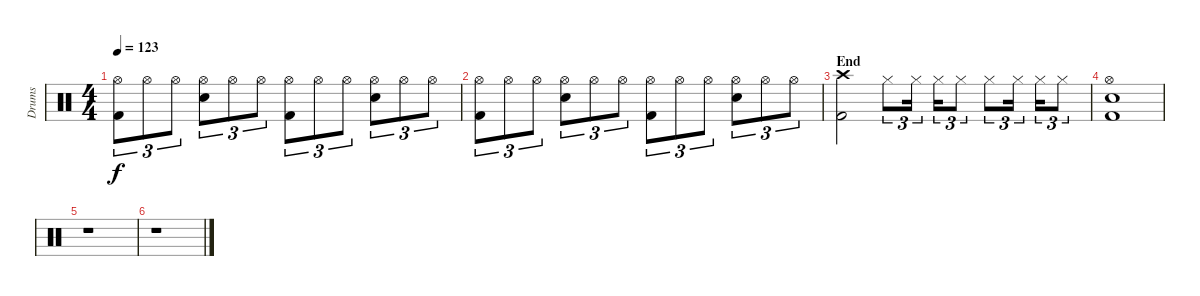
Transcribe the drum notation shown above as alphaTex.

\track ("Drums" "Drums") {instrument percussion}
\staff {score}
\articulation defaults
\ts (4 4)
\tempo 123
\clef neutral
\ks c
("Hi-Hat (open)" "Kick (hit) 2").8{tu (3 2) dy f} "Hi-Hat (open)".8{tu (3 2)} "Hi-Hat (open)".8{tu (3 2)} ("Hi-Hat (open)" "Snare (hit) 2").8{tu (3 2)} "Hi-Hat (open)".8{tu (3 2)} "Hi-Hat (open)".8{tu (3 2)} ("Hi-Hat (open)" "Kick (hit) 2").8{tu (3 2)} "Hi-Hat (open)".8{tu (3 2)} "Hi-Hat (open)".8{tu (3 2)} ("Hi-Hat (open)" "Snare (hit) 2").8{tu (3 2)} "Hi-Hat (open)".8{tu (3 2)} "Hi-Hat (open)".8{tu (3 2)} |
("Hi-Hat (open)" "Kick (hit) 2").8{tu (3 2)} "Hi-Hat (open)".8{tu (3 2)} "Hi-Hat (open)".8{tu (3 2)} ("Hi-Hat (open)" "Snare (hit) 2").8{tu (3 2)} "Hi-Hat (open)".8{tu (3 2)} "Hi-Hat (open)".8{tu (3 2)} ("Hi-Hat (open)" "Kick (hit) 2").8{tu (3 2)} "Hi-Hat (open)".8{tu (3 2)} "Hi-Hat (open)".8{tu (3 2)} ("Hi-Hat (open)" "Snare (hit) 2").8{tu (3 2)} "Hi-Hat (open)".8{tu (3 2)} "Hi-Hat (open)".8{tu (3 2)} |
\section ("" "End")
("Crash high (hit)" "Kick (hit) 2").2 "Hi-Hat (closed)".8{tu (3 2)} "Hi-Hat (closed)".16{tu (3 2)} "Hi-Hat (closed)".16{tu (3 2)} "Hi-Hat (closed)".8{tu (3 2)} "Hi-Hat (closed)".8{tu (3 2)} "Hi-Hat (closed)".16{tu (3 2)} "Hi-Hat (closed)".16{tu (3 2)} "Hi-Hat (closed)".8{tu (3 2)} |
("Hi-Hat (open)" "Snare (hit) 2" "Kick (hit) 2").1 |
r.1 |
r.1
